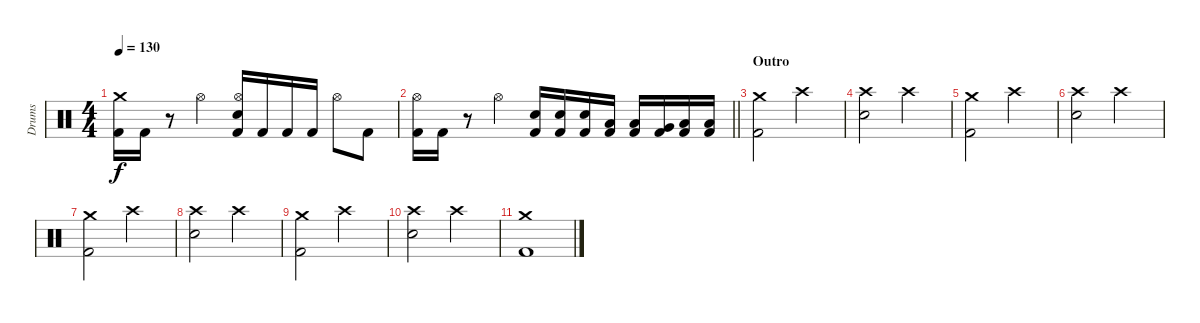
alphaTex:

\track ("Drums" "Drums") {instrument percussion}
\staff {score}
\articulation defaults
\ts (4 4)
\tempo 130
\clef neutral
\ks c
("Crash medium (hit)" "Kick (hit) 2").16{dy f} "Kick (hit) 2".16 r.8 "Hi-Hat (open)".4 ("Hi-Hat (open)" "Electric Snare (hit)" "Kick (hit) 2").16 "Kick (hit) 2".16 "Kick (hit) 2".16 "Kick (hit) 2".16 "Hi-Hat (open)".8 "Kick (hit) 2".8 |
\barLineRight lightlight
("Hi-Hat (open)" "Kick (hit) 2").16 "Kick (hit) 2".16 r.8 "Hi-Hat (open)".4 ("Electric Snare (hit)" "Kick (hit) 2").16 ("Electric Snare (hit)" "Kick (hit) 2").16 ("Electric Snare (hit)" "Kick (hit) 2").16 ("Low Tom (hit)" "Kick (hit) 2").16 ("Low Tom (hit)" "Kick (hit) 2").16 ("Very Low Tom (hit)" "Kick (hit) 2").16 ("Low Floor Tom (hit)" "Kick (hit) 2").16 ("Low Floor Tom (hit)" "Kick (hit) 2").16 |
\section ("" "Outro")
("Crash medium (hit)" "Kick (hit) 2").2 "Crash high (hit)".2 |
("Crash high (hit)" "Electric Snare (hit)").2 "Crash high (hit)".2 |
("Crash medium (hit)" "Kick (hit) 2").2 "Crash high (hit)".2 |
("Crash high (hit)" "Electric Snare (hit)").2 "Crash high (hit)".2 |
("Crash medium (hit)" "Kick (hit) 2").2 "Crash high (hit)".2 |
("Crash high (hit)" "Electric Snare (hit)").2 "Crash high (hit)".2 |
("Crash medium (hit)" "Kick (hit) 2").2 "Crash high (hit)".2 |
("Crash high (hit)" "Electric Snare (hit)").2 "Crash high (hit)".2 |
("Crash medium (hit)" "Kick (hit) 2").1
